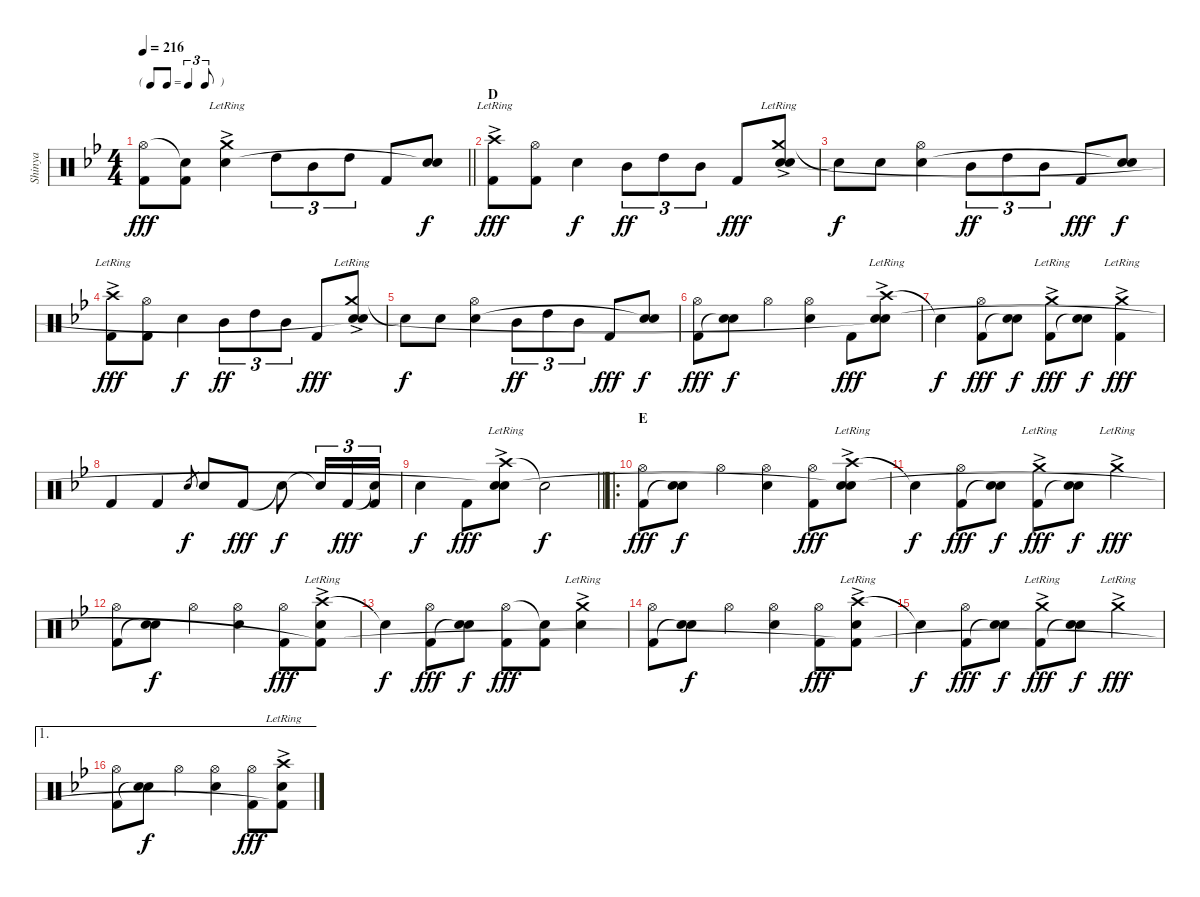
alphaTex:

\track ("Shinya" "Shinya") {instrument percussion}
\staff {score}
\articulation defaults
\ts (4 4)
\tf triplet8th
\tempo 216
\clef neutral
\barLineRight lightlight
\ks bb
("Hi-Hat (open)" "Kick (hit) 2").8{dy fff} ("Snare (hit)"{t} "Kick (hit) 2").8 ("Crash medium (hit)"{ac lr} "Electric Snare (hit)").4 "High Tom (hit)".8{tu (3 2)} "Mid Tom (hit)".8{tu (3 2)} "High Tom (hit)".8{tu (3 2)} "Kick (hit) 2".8 ("Electric Snare (hit)" "Snare (hit)"{t}).8{dy f} |
\section ("" "D")
("Crash high (hit)"{ac lr} "Kick (hit) 2").8{dy fff} ("Hi-Hat (open)" "Kick (hit) 2").8 "Electric Snare (hit)".4{dy f} "Mid Tom (hit)".8{tu (3 2) dy ff} "High Tom (hit)".8{tu (3 2)} "Mid Tom (hit)".8{tu (3 2)} "Kick (hit) 2".8{dy fff} ("Crash medium (hit)"{ac lr} "Electric Snare (hit)" "Snare (hit)"{t}).8 |
"Snare (hit)"{t}.8{dy f} "Electric Snare (hit)".8 ("Hi-Hat (open)" "Electric Snare (hit)").4 "Mid Tom (hit)".8{tu (3 2) dy ff} "High Tom (hit)".8{tu (3 2)} "Mid Tom (hit)".8{tu (3 2)} "Kick (hit) 2".8{dy fff} ("Electric Snare (hit)" "Snare (hit)"{t}).8{dy f} |
("Crash high (hit)"{ac lr} "Kick (hit) 2").8{dy fff} ("Hi-Hat (open)" "Kick (hit) 2").8 "Electric Snare (hit)".4{dy f} "Mid Tom (hit)".8{tu (3 2) dy ff} "High Tom (hit)".8{tu (3 2)} "Mid Tom (hit)".8{tu (3 2)} "Kick (hit) 2".8{dy fff} ("Crash medium (hit)"{ac lr} "Electric Snare (hit)" "Snare (hit)"{t}).8 |
"Snare (hit)"{t}.8{dy f} "Electric Snare (hit)".8 ("Hi-Hat (open)" "Electric Snare (hit)").4 "Mid Tom (hit)".8{tu (3 2) dy ff} "High Tom (hit)".8{tu (3 2)} "Mid Tom (hit)".8{tu (3 2)} "Kick (hit) 2".8{dy fff} ("Electric Snare (hit)" "Snare (hit)"{t}).8{dy f} |
("Hi-Hat (open)" "Kick (hit) 2").8{dy fff} ("Electric Snare (hit)" "Snare (hit)"{t}).8{dy f} "Hi-Hat (open)".4 ("Hi-Hat (open)" "Electric Snare (hit)").4 "Kick (hit) 2".8{dy fff} ("Crash high (hit)"{ac lr} "Electric Snare (hit)" "Snare (hit)"{t}).8 |
"Snare (hit)"{t}.4{dy f} ("Hi-Hat (open)" "Kick (hit) 2").8{dy fff} ("Electric Snare (hit)" "Snare (hit)"{t}).8{dy f} ("Crash medium (hit)"{ac lr} "Kick (hit) 2").8{dy fff} ("Electric Snare (hit)" "Snare (hit)"{t}).8{dy f} ("Crash medium (hit)"{ac lr} "Kick (hit) 2").4{dy fff} |
"Kick (hit) 2".4 "Kick (hit) 2".4 "Electric Snare (hit)".8{gr dy f} "Electric Snare (hit)".8 "Kick (hit) 2".8{dy fff} "Snare (hit)"{t}.8{dy f} "Snare (hit)"{t}.16{tu (3 2)} "Kick (hit) 2".16{tu (3 2) dy fff} ("Snare (hit)"{t} "Kick (hit) 2").16{tu (3 2)} |
\barLineRight lightlight "Electric Snare (hit)".4{dy f} "Kick (hit) 2".8{dy fff}
("Crash high (hit)"{ac lr} "Electric Snare (hit)" "Snare (hit)"{t}).8 "Snare (hit)"{t}.2{dy f} |
\ro
\section ("" "E")
("Hi-Hat (open)" "Kick (hit) 2").8{dy fff} ("Electric Snare (hit)" "Snare (hit)"{t}).8{dy f} "Hi-Hat (open)".4 ("Hi-Hat (open)" "Electric Snare (hit)").4 ("Hi-Hat (open)" "Kick (hit) 2").8{dy fff} ("Crash high (hit)"{ac lr} "Electric Snare (hit)" "Snare (hit)"{t}).8 |
"Snare (hit)"{t}.4{dy f} ("Hi-Hat (open)" "Kick (hit) 2").8{dy fff} ("Electric Snare (hit)" "Snare (hit)"{t}).8{dy f} ("Crash medium (hit)"{ac lr} "Kick (hit) 2").8{dy fff} ("Electric Snare (hit)" "Snare (hit)"{t}).8{dy f} "Crash medium (hit)"{ac lr}.4{dy fff} |
("Hi-Hat (open)" "Kick (hit) 2").8 ("Electric Snare (hit)" "Snare (hit)"{t}).8{dy f} "Hi-Hat (open)".4 ("Hi-Hat (open)" "Electric Snare (hit)").4 ("Hi-Hat (open)" "Kick (hit) 2").8{dy fff} ("Crash high (hit)"{ac lr} "Electric Snare (hit)" "Kick (hit) 2"{t}).8 |
"Snare (hit)"{t}.4{dy f} ("Hi-Hat (open)" "Kick (hit) 2").8{dy fff} ("Electric Snare (hit)" "Snare (hit)"{t}).8{dy f} ("Hi-Hat (open)" "Kick (hit) 2").8{dy fff} ("Snare (hit)"{t} "Kick (hit) 2").8 ("Crash medium (hit)"{ac lr} "Electric Snare (hit)").4 |
("Hi-Hat (open)" "Kick (hit) 2").8 ("Electric Snare (hit)" "Snare (hit)"{t}).8{dy f} "Hi-Hat (open)".4 ("Hi-Hat (open)" "Electric Snare (hit)").4 ("Hi-Hat (open)" "Kick (hit) 2").8{dy fff} ("Crash high (hit)"{ac lr} "Electric Snare (hit)" "Kick (hit) 2"{t}).8 |
"Snare (hit)"{t}.4{dy f} ("Hi-Hat (open)" "Kick (hit) 2").8{dy fff} ("Electric Snare (hit)" "Snare (hit)"{t}).8{dy f} ("Crash medium (hit)"{ac lr} "Kick (hit) 2").8{dy fff} ("Electric Snare (hit)" "Snare (hit)"{t}).8{dy f} "Crash medium (hit)"{ac lr}.4{dy fff} |
\ae 1
("Hi-Hat (open)" "Kick (hit) 2").8 ("Electric Snare (hit)" "Snare (hit)"{t}).8{dy f} "Hi-Hat (open)".4 ("Hi-Hat (open)" "Electric Snare (hit)").4 ("Hi-Hat (open)" "Kick (hit) 2").8{dy fff} ("Crash high (hit)"{ac lr} "Electric Snare (hit)" "Kick (hit) 2"{t}).8
